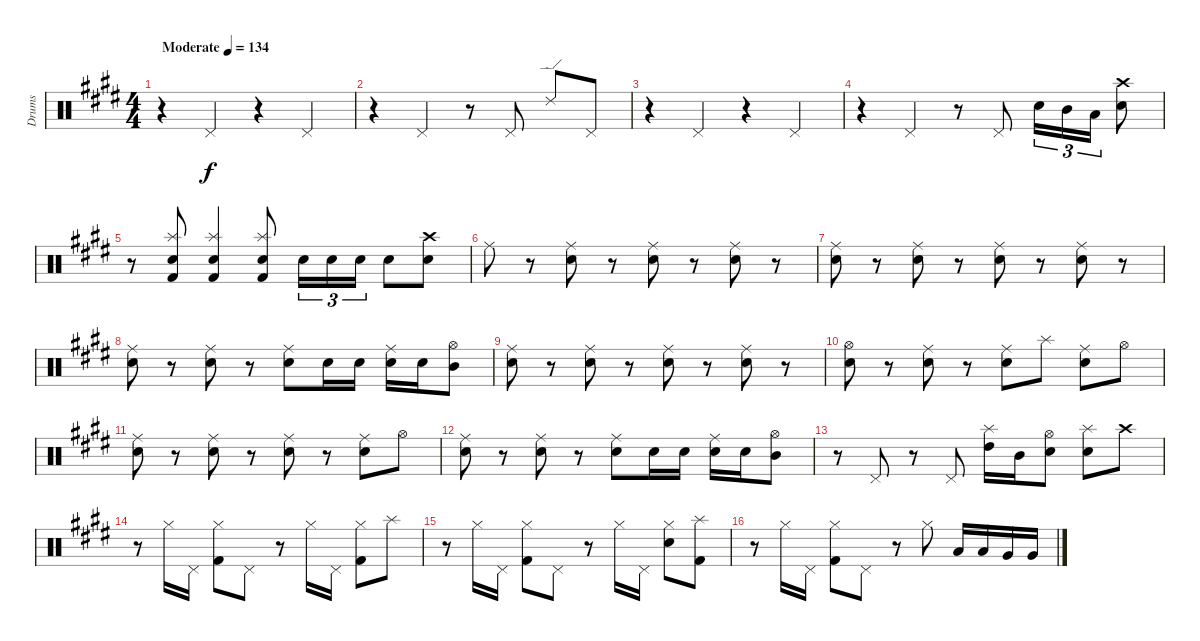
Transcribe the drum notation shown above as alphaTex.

\track ("Drums" "Drums") {instrument percussion}
\staff {score}
\articulation defaults
\ts (4 4)
\tempo (134 "Moderate")
\clef neutral
\ks e
r.4{dy f volume 10} "Pedal Hi-Hat (hit)".4 r.4 "Pedal Hi-Hat (hit)".4 |
r.4 "Pedal Hi-Hat (hit)".4 r.8 "Pedal Hi-Hat (hit)".8 "Ride (edge) 2".8 "Pedal Hi-Hat (hit)".8 |
r.4 "Pedal Hi-Hat (hit)".4 r.4 "Pedal Hi-Hat (hit)".4 |
r.4 "Pedal Hi-Hat (hit)".4 r.8 "Pedal Hi-Hat (hit)".8 "Electric Snare (hit)".16{tu (3 2)} "Mid Tom (hit)".16{tu (3 2)} "Low Tom (hit)".16{tu (3 2)} ("Crash high (hit)" "Electric Snare (hit)").8 |
r.8 ("Electric Snare (hit)" "Splash (hit)" "Kick (hit) 2").8 ("Electric Snare (hit)" "Splash (hit)" "Kick (hit) 2").4 ("Electric Snare (hit)" "Splash (hit)" "Kick (hit) 2").8 "Electric Snare (hit)".16{tu (3 2)} "Electric Snare (hit)".16{tu (3 2)} "Electric Snare (hit)".16{tu (3 2)} "Electric Snare (hit)".8 ("Crash high (hit)" "Electric Snare (hit)").8 |
"Ride (middle)".8 r.8 ("Ride (middle)" "Electric Snare (hit)").8 r.8 ("Ride (middle)" "Electric Snare (hit)").8 r.8 ("Ride (middle)" "Electric Snare (hit)").8 r.8 |
("Ride (middle)" "Electric Snare (hit)").8 r.8 ("Ride (middle)" "Electric Snare (hit)").8 r.8 ("Ride (middle)" "Electric Snare (hit)").8 r.8 ("Ride (middle)" "Electric Snare (hit)").8 r.8 |
("Ride (middle)" "Electric Snare (hit)").8 r.8 ("Ride (middle)" "Electric Snare (hit)").8 r.8 ("Ride (middle)" "Electric Snare (hit)").8 "Electric Snare (hit)".16{volume 8} "Electric Snare (hit)".16 ("Ride (middle)" "Electric Snare (hit)").16 "Electric Snare (hit)".16 ("Hi-Hat (open)" "Mid Tom (hit)").8{volume 10} |
("Ride (middle)" "Electric Snare (hit)").8 r.8 ("Ride (middle)" "Electric Snare (hit)").8 r.8 ("Ride (middle)" "Electric Snare (hit)").8 r.8 ("Ride (middle)" "Electric Snare (hit)").8 r.8 |
("Hi-Hat (open)" "Electric Snare (hit)").8 r.8 ("Ride (middle)" "Electric Snare (hit)").8 r.8 ("Ride (middle)" "Electric Snare (hit)").8 "Splash (hit)".8 ("Ride (middle)" "Electric Snare (hit)").8 "Hi-Hat (open)".8 |
("Ride (middle)" "Electric Snare (hit)").8 r.8 ("Ride (middle)" "Electric Snare (hit)").8 r.8 ("Ride (middle)" "Electric Snare (hit)").8 r.8 ("Ride (middle)" "Electric Snare (hit)").8 "Hi-Hat (open)".8 |
("Ride (middle)" "Electric Snare (hit)").8 r.8 ("Ride (middle)" "Electric Snare (hit)").8 r.8 ("Ride (middle)" "Electric Snare (hit)").8 "Electric Snare (hit)".16{volume 8} "Electric Snare (hit)".16 ("Ride (middle)" "Electric Snare (hit)").16 "Electric Snare (hit)".16 ("Hi-Hat (open)" "Mid Tom (hit)").8{volume 10} |
r.8 "Pedal Hi-Hat (hit)".8 r.8 "Pedal Hi-Hat (hit)".8 ("High Tom (hit)" "Splash (hit)").16 "Mid Tom (hit)".16 ("Electric Snare (hit)" "Hi-Hat (open)").8 ("Electric Snare (hit)" "Splash (hit)").8 "Crash high (hit)".8 |
r.8 "Hi-Hat (closed)".16 "Pedal Hi-Hat (hit)".16 ("Hi-Hat (closed)" "Kick (hit) 2").8 "Pedal Hi-Hat (hit)".8 r.8 "Hi-Hat (closed)".16 "Pedal Hi-Hat (hit)".16 ("Hi-Hat (closed)" "Kick (hit) 2").8 "Splash (hit)".8 |
r.8 "Hi-Hat (closed)".16 "Pedal Hi-Hat (hit)".16 ("Hi-Hat (closed)" "Kick (hit) 2").8 "Pedal Hi-Hat (hit)".8 r.8 "Hi-Hat (closed)".16 "Pedal Hi-Hat (hit)".16 ("Hi-Hat (closed)" "Electric Snare (hit)").8 ("Splash (hit)" "Kick (hit) 2").8 |
r.8 "Hi-Hat (closed)".16 "Pedal Hi-Hat (hit)".16 ("Hi-Hat (closed)" "Kick (hit) 2").8 "Pedal Hi-Hat (hit)".8 r.8 "Hi-Hat (closed)".8 "Low Tom (hit)".16 "Low Tom (hit)".16 "Very Low Tom (hit)".16 "Very Low Tom (hit)".16
